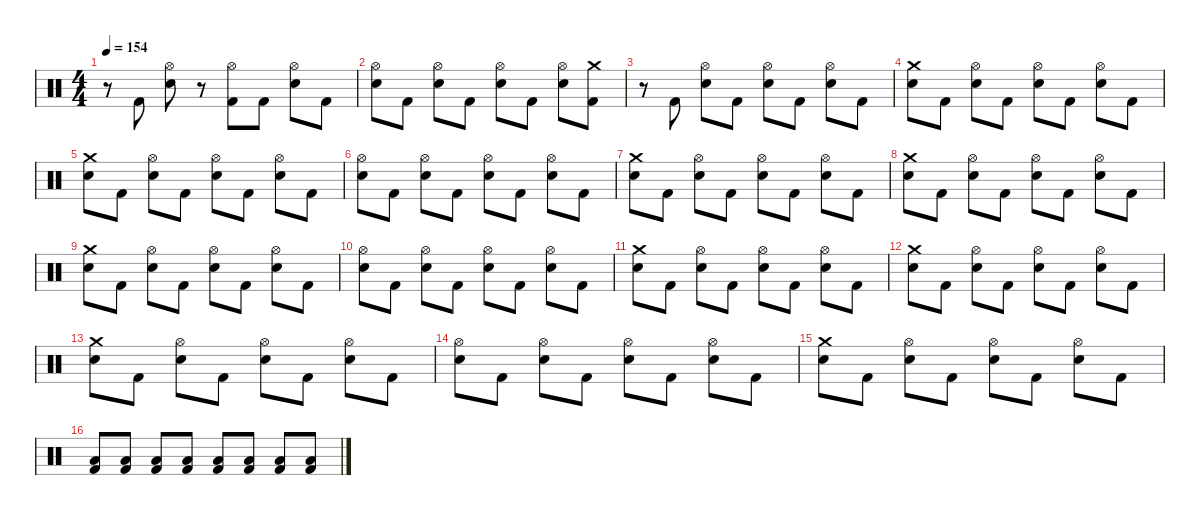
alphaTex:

\defaultSystemsLayout 4
\hideDynamics
\bracketExtendMode nobrackets
\singleTrackTrackNamePolicy hidden
\multiTrackTrackNamePolicy hidden
\firstSystemTrackNameMode fullname
\firstSystemTrackNameOrientation horizontal
\otherSystemsTrackNameOrientation horizontal
\track ("Percussie" "drm.") {instrument percussion}
\staff {score}
\articulation defaults
\ts (4 4)
\tempo 154
\clef neutral
\ks c
r.8{dy f beam Down} "Kick (hit) 2".8{beam Up} ("Hi-Hat (open)" "Snare (hit) 2").8{beam Down} r.8{beam Down} ("Hi-Hat (open)" "Kick (hit) 2").8{beam Down} "Kick (hit) 2".8{beam Down} ("Hi-Hat (open)" "Snare (hit) 2").8{beam Down} "Kick (hit) 2".8{beam Down} |
("Hi-Hat (open)" "Snare (hit) 2").8{beam Down} "Kick (hit) 2".8{beam Down} ("Hi-Hat (open)" "Snare (hit) 2").8{beam Down} "Kick (hit) 2".8{beam Down} ("Hi-Hat (open)" "Snare (hit) 2").8{beam Down} "Kick (hit) 2".8{beam Down} ("Hi-Hat (open)" "Snare (hit) 2").8{beam Down} ("Crash medium (hit)" "Kick (hit) 2").8{beam Down} |
r.8{beam Down} "Kick (hit) 2".8{beam Up} ("Hi-Hat (open)" "Snare (hit) 2").8{beam Down} "Kick (hit) 2".8{beam Down} ("Hi-Hat (open)" "Snare (hit) 2").8{beam Down} "Kick (hit) 2".8{beam Down} ("Hi-Hat (open)" "Snare (hit) 2").8{beam Down} "Kick (hit) 2".8{beam Down} |
("Crash medium (hit)" "Snare (hit) 2").8{beam Down} "Kick (hit) 2".8{beam Down} ("Hi-Hat (open)" "Snare (hit) 2").8{beam Down} "Kick (hit) 2".8{beam Down} ("Hi-Hat (open)" "Snare (hit) 2").8{beam Down} "Kick (hit) 2".8{beam Down} ("Hi-Hat (open)" "Snare (hit) 2").8{beam Down} "Kick (hit) 2".8{beam Down} |
("Crash medium (hit)" "Snare (hit) 2").8{beam Down} "Kick (hit) 2".8{beam Down} ("Hi-Hat (open)" "Snare (hit) 2").8{beam Down} "Kick (hit) 2".8{beam Down} ("Hi-Hat (open)" "Snare (hit) 2").8{beam Down} "Kick (hit) 2".8{beam Down} ("Hi-Hat (open)" "Snare (hit) 2").8{beam Down} "Kick (hit) 2".8{beam Down} |
("Hi-Hat (open)" "Snare (hit) 2").8{beam Down} "Kick (hit) 2".8{beam Down} ("Hi-Hat (open)" "Snare (hit) 2").8{beam Down} "Kick (hit) 2".8{beam Down} ("Hi-Hat (open)" "Snare (hit) 2").8{beam Down} "Kick (hit) 2".8{beam Down} ("Hi-Hat (open)" "Snare (hit) 2").8{beam Down} "Kick (hit) 2".8{beam Down} |
("Crash medium (hit)" "Snare (hit) 2").8{beam Down} "Kick (hit) 2".8{beam Down} ("Hi-Hat (open)" "Snare (hit) 2").8{beam Down} "Kick (hit) 2".8{beam Down} ("Hi-Hat (open)" "Snare (hit) 2").8{beam Down} "Kick (hit) 2".8{beam Down} ("Hi-Hat (open)" "Snare (hit) 2").8{beam Down} "Kick (hit) 2".8{beam Down} |
("Crash medium (hit)" "Snare (hit) 2").8{beam Down} "Kick (hit) 2".8{beam Down} ("Hi-Hat (open)" "Snare (hit) 2").8{beam Down} "Kick (hit) 2".8{beam Down} ("Hi-Hat (open)" "Snare (hit) 2").8{beam Down} "Kick (hit) 2".8{beam Down} ("Hi-Hat (open)" "Snare (hit) 2").8{beam Down} "Kick (hit) 2".8{beam Down} |
("Crash medium (hit)" "Snare (hit) 2").8{beam Down} "Kick (hit) 2".8{beam Down} ("Hi-Hat (open)" "Snare (hit) 2").8{beam Down} "Kick (hit) 2".8{beam Down} ("Hi-Hat (open)" "Snare (hit) 2").8{beam Down} "Kick (hit) 2".8{beam Down} ("Hi-Hat (open)" "Snare (hit) 2").8{beam Down} "Kick (hit) 2".8{beam Down} |
("Hi-Hat (open)" "Snare (hit) 2").8{beam Down} "Kick (hit) 2".8{beam Down} ("Hi-Hat (open)" "Snare (hit) 2").8{beam Down} "Kick (hit) 2".8{beam Down} ("Hi-Hat (open)" "Snare (hit) 2").8{beam Down} "Kick (hit) 2".8{beam Down} ("Hi-Hat (open)" "Snare (hit) 2").8{beam Down} "Kick (hit) 2".8{beam Down} |
("Crash medium (hit)" "Snare (hit) 2").8{beam Down} "Kick (hit) 2".8{beam Down} ("Hi-Hat (open)" "Snare (hit) 2").8{beam Down} "Kick (hit) 2".8{beam Down} ("Hi-Hat (open)" "Snare (hit) 2").8{beam Down} "Kick (hit) 2".8{beam Down} ("Hi-Hat (open)" "Snare (hit) 2").8{beam Down} "Kick (hit) 2".8{beam Down} |
("Crash medium (hit)" "Snare (hit) 2").8{beam Down} "Kick (hit) 2".8{beam Down} ("Hi-Hat (open)" "Snare (hit) 2").8{beam Down} "Kick (hit) 2".8{beam Down} ("Hi-Hat (open)" "Snare (hit) 2").8{beam Down} "Kick (hit) 2".8{beam Down} ("Hi-Hat (open)" "Snare (hit) 2").8{beam Down} "Kick (hit) 2".8{beam Down} |
("Crash medium (hit)" "Snare (hit) 2").8{beam Down} "Kick (hit) 2".8{beam Down} ("Hi-Hat (open)" "Snare (hit) 2").8{beam Down} "Kick (hit) 2".8{beam Down} ("Hi-Hat (open)" "Snare (hit) 2").8{beam Down} "Kick (hit) 2".8{beam Down} ("Hi-Hat (open)" "Snare (hit) 2").8{beam Down} "Kick (hit) 2".8{beam Down} |
("Hi-Hat (open)" "Snare (hit) 2").8{beam Down} "Kick (hit) 2".8{beam Down} ("Hi-Hat (open)" "Snare (hit) 2").8{beam Down} "Kick (hit) 2".8{beam Down} ("Hi-Hat (open)" "Snare (hit) 2").8{beam Down} "Kick (hit) 2".8{beam Down} ("Hi-Hat (open)" "Snare (hit) 2").8{beam Down} "Kick (hit) 2".8{beam Down} |
("Crash medium (hit)" "Snare (hit) 2").8{beam Down} "Kick (hit) 2".8{beam Down} ("Hi-Hat (open)" "Snare (hit) 2").8{beam Down} "Kick (hit) 2".8{beam Down} ("Hi-Hat (open)" "Snare (hit) 2").8{beam Down} "Kick (hit) 2".8{beam Down} ("Hi-Hat (open)" "Snare (hit) 2").8{beam Down} "Kick (hit) 2".8{beam Down} |
("Low Tom (hit)" "Kick (hit) 2").8{beam Up} ("Low Tom (hit)" "Kick (hit) 2").8{beam Up} ("Low Tom (hit)" "Kick (hit) 2").8{beam Up} ("Low Tom (hit)" "Kick (hit) 2").8{beam Up} ("Low Tom (hit)" "Kick (hit) 2").8{beam Up} ("Low Tom (hit)" "Kick (hit) 2").8{beam Up} ("Low Tom (hit)" "Kick (hit) 2").8{beam Up} ("Low Tom (hit)" "Kick (hit) 2").8{beam Up}
